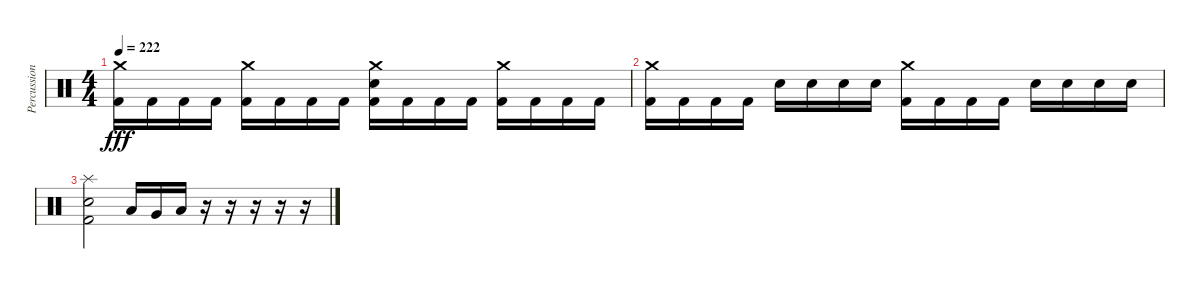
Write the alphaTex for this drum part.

\track ("Percussion" "Percussion") {instrument percussion}
\staff {score}
\articulation defaults
\ts (4 4)
\tempo 222
\clef neutral
\ks c
("Crash medium (hit)" "Kick (hit) 2").16{dy fff} "Kick (hit) 2".16 "Kick (hit) 2".16 "Kick (hit) 2".16 ("Crash medium (hit)" "Kick (hit) 2").16 "Kick (hit) 2".16 "Kick (hit) 2".16 "Kick (hit) 2".16 ("Crash medium (hit)" "Electric Snare (hit)" "Kick (hit) 2").16 "Kick (hit) 2".16 "Kick (hit) 2".16 "Kick (hit) 2".16 ("Crash medium (hit)" "Kick (hit) 2").16 "Kick (hit) 2".16 "Kick (hit) 2".16 "Kick (hit) 2".16 |
("Crash medium (hit)" "Kick (hit) 2").16 "Kick (hit) 2".16 "Kick (hit) 2".16 "Kick (hit) 2".16 "Electric Snare (hit)".16 "Electric Snare (hit)".16 "Electric Snare (hit)".16 "Electric Snare (hit)".16 ("Crash medium (hit)" "Kick (hit) 2").16 "Kick (hit) 2".16 "Kick (hit) 2".16 "Kick (hit) 2".16 "Electric Snare (hit)".16 "Electric Snare (hit)".16 "Electric Snare (hit)".16 "Electric Snare (hit)".16 |
("Splash (hit)" "Electric Snare (hit)" "Kick (hit) 2").2 "Low Tom (hit)".16 "Very Low Tom (hit)".16 "Low Floor Tom (hit)".16 r.16 r.16 r.16 r.16 r.16
